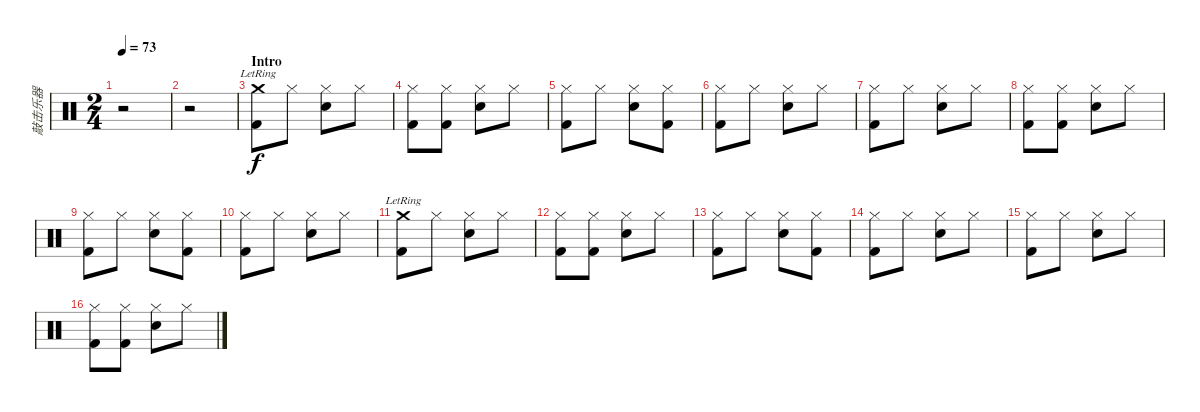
\track ("敲击乐器" "敲击乐器") {instrument percussion}
\staff {score}
\articulation defaults
\ts (2 4)
\tempo 73
\clef neutral
\ks c
r.2{dy f} |
r.2 |
\section ("" "Intro")
("Crash medium (hit)"{lr} "Kick (hit) 2").8 "Hi-Hat (closed)".8 ("Hi-Hat (closed)" "Electric Snare (hit)").8 "Hi-Hat (closed)".8 |
("Hi-Hat (closed)" "Kick (hit) 2").8 ("Hi-Hat (closed)" "Kick (hit) 2").8 ("Hi-Hat (closed)" "Electric Snare (hit)").8 "Hi-Hat (closed)".8 |
("Hi-Hat (closed)" "Kick (hit) 2").8 "Hi-Hat (closed)".8 ("Hi-Hat (closed)" "Electric Snare (hit)").8 ("Hi-Hat (closed)" "Kick (hit) 2").8 |
("Hi-Hat (closed)" "Kick (hit) 2").8 "Hi-Hat (closed)".8 ("Hi-Hat (closed)" "Electric Snare (hit)").8 "Hi-Hat (closed)".8 |
("Hi-Hat (closed)" "Kick (hit) 2").8 "Hi-Hat (closed)".8 ("Hi-Hat (closed)" "Electric Snare (hit)").8 "Hi-Hat (closed)".8 |
("Hi-Hat (closed)" "Kick (hit) 2").8 ("Hi-Hat (closed)" "Kick (hit) 2").8 ("Hi-Hat (closed)" "Electric Snare (hit)").8 "Hi-Hat (closed)".8 |
("Hi-Hat (closed)" "Kick (hit) 2").8 "Hi-Hat (closed)".8 ("Hi-Hat (closed)" "Electric Snare (hit)").8 ("Hi-Hat (closed)" "Kick (hit) 2").8 |
("Hi-Hat (closed)" "Kick (hit) 2").8 "Hi-Hat (closed)".8 ("Hi-Hat (closed)" "Electric Snare (hit)").8 "Hi-Hat (closed)".8 |
("Crash medium (hit)"{lr} "Kick (hit) 2").8 "Hi-Hat (closed)".8 ("Hi-Hat (closed)" "Electric Snare (hit)").8 "Hi-Hat (closed)".8 |
("Hi-Hat (closed)" "Kick (hit) 2").8 ("Hi-Hat (closed)" "Kick (hit) 2").8 ("Hi-Hat (closed)" "Electric Snare (hit)").8 "Hi-Hat (closed)".8 |
("Hi-Hat (closed)" "Kick (hit) 2").8 "Hi-Hat (closed)".8 ("Hi-Hat (closed)" "Electric Snare (hit)").8 ("Hi-Hat (closed)" "Kick (hit) 2").8 |
("Hi-Hat (closed)" "Kick (hit) 2").8 "Hi-Hat (closed)".8 ("Hi-Hat (closed)" "Electric Snare (hit)").8 "Hi-Hat (closed)".8 |
("Hi-Hat (closed)" "Kick (hit) 2").8 "Hi-Hat (closed)".8 ("Hi-Hat (closed)" "Electric Snare (hit)").8 "Hi-Hat (closed)".8 |
("Hi-Hat (closed)" "Kick (hit) 2").8 ("Hi-Hat (closed)" "Kick (hit) 2").8 ("Hi-Hat (closed)" "Electric Snare (hit)").8 "Hi-Hat (closed)".8
